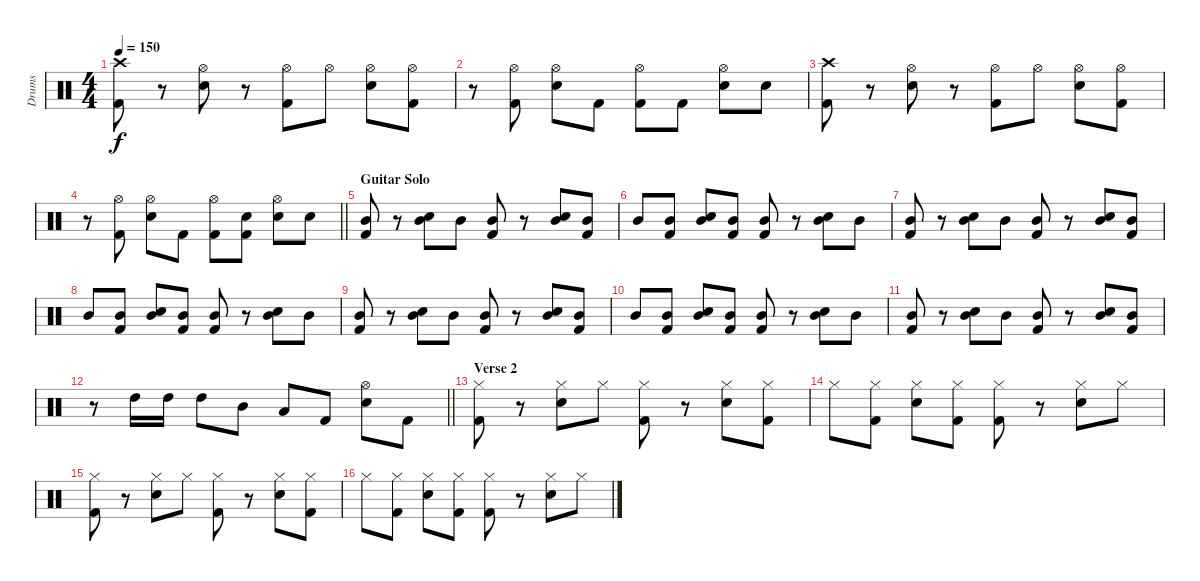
\track ("Drums" "Drums") {instrument percussion}
\staff {score}
\articulation defaults
\ts (4 4)
\tempo 150
\clef neutral
\ks c
("Crash high (hit)" "Kick (hit) 2").8{dy f} r.8 ("Snare (hit) 2" "Hi-Hat (open)").8 r.8 ("Hi-Hat (open)" "Kick (hit) 2").8 "Hi-Hat (open)".8 ("Snare (hit) 2" "Hi-Hat (open)").8 ("Hi-Hat (open)" "Kick (hit) 2").8 |
r.8 ("Hi-Hat (open)" "Kick (hit) 2").8 ("Snare (hit) 2" "Hi-Hat (open)").8 "Kick (hit) 2".8 ("Hi-Hat (open)" "Kick (hit) 2").8 "Kick (hit) 2".8 ("Snare (hit) 2" "Hi-Hat (open)").8 "Snare (hit) 2".8 |
("Crash high (hit)" "Kick (hit) 2").8 r.8 ("Snare (hit) 2" "Hi-Hat (open)").8 r.8 ("Hi-Hat (open)" "Kick (hit) 2").8 "Hi-Hat (open)".8 ("Snare (hit) 2" "Hi-Hat (open)").8 ("Hi-Hat (open)" "Kick (hit) 2").8 |
\barLineRight lightlight
r.8 ("Hi-Hat (open)" "Kick (hit) 2").8 ("Snare (hit) 2" "Hi-Hat (open)").8 "Kick (hit) 2".8 ("Hi-Hat (open)" "Kick (hit) 2").8 ("Snare (hit) 2" "Kick (hit) 2").8 ("Snare (hit) 2" "Hi-Hat (open)").8 "Snare (hit) 2".8 |
\section ("" "Guitar Solo")
("Mid Tom (hit)" "Kick (hit) 2").8 r.8 ("Snare (hit) 2" "Mid Tom (hit)").8 "Mid Tom (hit)".8 ("Mid Tom (hit)" "Kick (hit) 2").8 r.8 ("Snare (hit) 2" "Mid Tom (hit)").8 ("Mid Tom (hit)" "Kick (hit) 2").8 |
"Mid Tom (hit)".8 ("Mid Tom (hit)" "Kick (hit) 2").8 ("Snare (hit) 2" "Mid Tom (hit)").8 ("Mid Tom (hit)" "Kick (hit) 2").8 ("Mid Tom (hit)" "Kick (hit) 2").8 r.8 ("Snare (hit) 2" "Mid Tom (hit)").8 "Mid Tom (hit)".8 |
("Mid Tom (hit)" "Kick (hit) 2").8 r.8 ("Snare (hit) 2" "Mid Tom (hit)").8 "Mid Tom (hit)".8 ("Mid Tom (hit)" "Kick (hit) 2").8 r.8 ("Snare (hit) 2" "Mid Tom (hit)").8 ("Mid Tom (hit)" "Kick (hit) 2").8 |
"Mid Tom (hit)".8 ("Mid Tom (hit)" "Kick (hit) 2").8 ("Snare (hit) 2" "Mid Tom (hit)").8 ("Mid Tom (hit)" "Kick (hit) 2").8 ("Mid Tom (hit)" "Kick (hit) 2").8 r.8 ("Snare (hit) 2" "Mid Tom (hit)").8 "Mid Tom (hit)".8 |
("Mid Tom (hit)" "Kick (hit) 2").8 r.8 ("Snare (hit) 2" "Mid Tom (hit)").8 "Mid Tom (hit)".8 ("Mid Tom (hit)" "Kick (hit) 2").8 r.8 ("Snare (hit) 2" "Mid Tom (hit)").8 ("Mid Tom (hit)" "Kick (hit) 2").8 |
"Mid Tom (hit)".8 ("Mid Tom (hit)" "Kick (hit) 2").8 ("Snare (hit) 2" "Mid Tom (hit)").8 ("Mid Tom (hit)" "Kick (hit) 2").8 ("Mid Tom (hit)" "Kick (hit) 2").8 r.8 ("Snare (hit) 2" "Mid Tom (hit)").8 "Mid Tom (hit)".8 |
("Mid Tom (hit)" "Kick (hit) 2").8 r.8 ("Snare (hit) 2" "Mid Tom (hit)").8 "Mid Tom (hit)".8 ("Mid Tom (hit)" "Kick (hit) 2").8 r.8 ("Snare (hit) 2" "Mid Tom (hit)").8 ("Mid Tom (hit)" "Kick (hit) 2").8 |
\barLineRight lightlight
r.8 "High Tom (hit)".16 "High Tom (hit)".16 "High Tom (hit)".8 "Mid Tom (hit)".8 "Low Tom (hit)".8 "Kick (hit) 2".8 ("Snare (hit) 2" "Hi-Hat (open)").8 "Kick (hit) 2".8 |
\section ("" "Verse 2")
("Hi-Hat (closed)" "Kick (hit) 2").8 r.8 ("Snare (hit) 2" "Hi-Hat (closed)").8 "Hi-Hat (closed)".8 ("Hi-Hat (closed)" "Kick (hit) 2").8 r.8 ("Snare (hit) 2" "Hi-Hat (closed)").8 ("Hi-Hat (closed)" "Kick (hit) 2").8 |
"Hi-Hat (closed)".8 ("Hi-Hat (closed)" "Kick (hit) 2").8 ("Snare (hit) 2" "Hi-Hat (closed)").8 ("Hi-Hat (closed)" "Kick (hit) 2").8 ("Hi-Hat (closed)" "Kick (hit) 2").8 r.8 ("Snare (hit) 2" "Hi-Hat (closed)").8 "Hi-Hat (closed)".8 |
("Hi-Hat (closed)" "Kick (hit) 2").8 r.8 ("Snare (hit) 2" "Hi-Hat (closed)").8 "Hi-Hat (closed)".8 ("Hi-Hat (closed)" "Kick (hit) 2").8 r.8 ("Snare (hit) 2" "Hi-Hat (closed)").8 ("Hi-Hat (closed)" "Kick (hit) 2").8 |
"Hi-Hat (closed)".8 ("Hi-Hat (closed)" "Kick (hit) 2").8 ("Snare (hit) 2" "Hi-Hat (closed)").8 ("Hi-Hat (closed)" "Kick (hit) 2").8 ("Hi-Hat (closed)" "Kick (hit) 2").8 r.8 ("Snare (hit) 2" "Hi-Hat (closed)").8 "Hi-Hat (closed)".8
